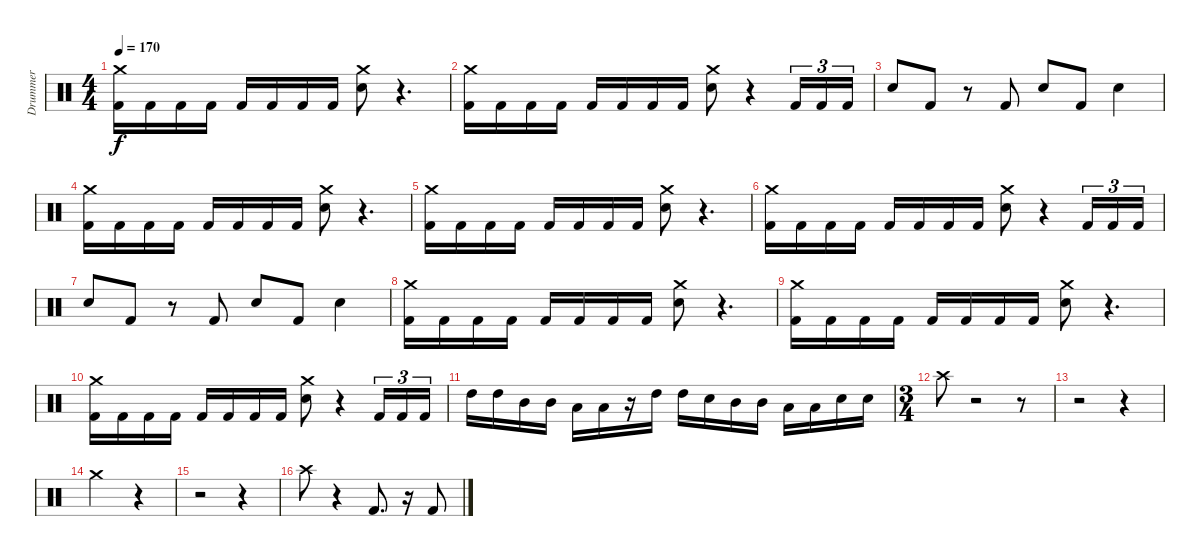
\track ("Drummer" "Drummer") {instrument percussion}
\staff {score}
\articulation defaults
\ts (4 4)
\tempo 170
\clef neutral
\ks c
("Crash medium (hit)" "Kick (hit) 2").16{dy f} "Kick (hit) 2".16 "Kick (hit) 2".16 "Kick (hit) 2".16 "Kick (hit) 2".16 "Kick (hit) 2".16 "Kick (hit) 2".16 "Kick (hit) 2".16 ("Crash medium (hit)" "Electric Snare (hit)").8 r.4{d} |
("Crash medium (hit)" "Kick (hit) 2").16 "Kick (hit) 2".16 "Kick (hit) 2".16 "Kick (hit) 2".16 "Kick (hit) 2".16 "Kick (hit) 2".16 "Kick (hit) 2".16 "Kick (hit) 2".16 ("Crash medium (hit)" "Electric Snare (hit)").8 r.4 "Kick (hit) 2".16{tu (3 2)} "Kick (hit) 2".16{tu (3 2)} "Kick (hit) 2".16{tu (3 2)} |
"Electric Snare (hit)".8 "Kick (hit) 2".8 r.8 "Kick (hit) 2".8 "Electric Snare (hit)".8 "Kick (hit) 2".8 "Electric Snare (hit)".4 |
("Crash medium (hit)" "Kick (hit) 2").16 "Kick (hit) 2".16 "Kick (hit) 2".16 "Kick (hit) 2".16 "Kick (hit) 2".16 "Kick (hit) 2".16 "Kick (hit) 2".16 "Kick (hit) 2".16 ("Crash medium (hit)" "Electric Snare (hit)").8 r.4{d} |
("Crash medium (hit)" "Kick (hit) 2").16 "Kick (hit) 2".16 "Kick (hit) 2".16 "Kick (hit) 2".16 "Kick (hit) 2".16 "Kick (hit) 2".16 "Kick (hit) 2".16 "Kick (hit) 2".16 ("Crash medium (hit)" "Electric Snare (hit)").8 r.4{d} |
("Crash medium (hit)" "Kick (hit) 2").16 "Kick (hit) 2".16 "Kick (hit) 2".16 "Kick (hit) 2".16 "Kick (hit) 2".16 "Kick (hit) 2".16 "Kick (hit) 2".16 "Kick (hit) 2".16 ("Crash medium (hit)" "Electric Snare (hit)").8 r.4 "Kick (hit) 2".16{tu (3 2)} "Kick (hit) 2".16{tu (3 2)} "Kick (hit) 2".16{tu (3 2)} |
"Electric Snare (hit)".8 "Kick (hit) 2".8 r.8 "Kick (hit) 2".8 "Electric Snare (hit)".8 "Kick (hit) 2".8 "Electric Snare (hit)".4 |
("Crash medium (hit)" "Kick (hit) 2").16 "Kick (hit) 2".16 "Kick (hit) 2".16 "Kick (hit) 2".16 "Kick (hit) 2".16 "Kick (hit) 2".16 "Kick (hit) 2".16 "Kick (hit) 2".16 ("Crash medium (hit)" "Electric Snare (hit)").8 r.4{d} |
("Crash medium (hit)" "Kick (hit) 2").16 "Kick (hit) 2".16 "Kick (hit) 2".16 "Kick (hit) 2".16 "Kick (hit) 2".16 "Kick (hit) 2".16 "Kick (hit) 2".16 "Kick (hit) 2".16 ("Crash medium (hit)" "Electric Snare (hit)").8 r.4{d} |
("Crash medium (hit)" "Kick (hit) 2").16 "Kick (hit) 2".16 "Kick (hit) 2".16 "Kick (hit) 2".16 "Kick (hit) 2".16 "Kick (hit) 2".16 "Kick (hit) 2".16 "Kick (hit) 2".16 ("Crash medium (hit)" "Electric Snare (hit)").8 r.4 "Kick (hit) 2".16{tu (3 2)} "Kick (hit) 2".16{tu (3 2)} "Kick (hit) 2".16{tu (3 2)} |
"High Tom (hit)".16 "High Tom (hit)".16 "Mid Tom (hit)".16 "Mid Tom (hit)".16 "Low Tom (hit)".16 "Low Tom (hit)".16 r.16 "High Tom (hit)".16 "High Tom (hit)".16 "Electric Snare (hit)".16 "Mid Tom (hit)".16 "Mid Tom (hit)".16 "Low Tom (hit)".16 "Low Tom (hit)".16 "Electric Snare (hit)".16 "Electric Snare (hit)".16 |
\ts (3 4)
"Crash high (hit)".8 r.2 r.8 |
r.2 r.4 |
"Crash medium (hit)".2 r.4 |
r.2 r.4 |
"Crash high (hit)".8 r.4 "Kick (hit) 2".8{d} r.16 "Kick (hit) 2".8
